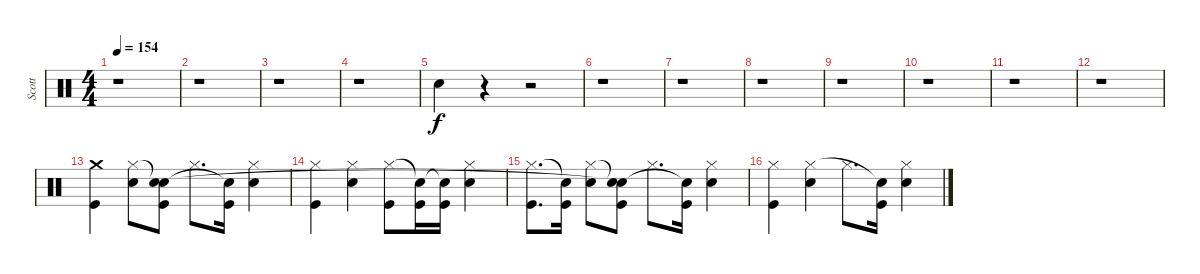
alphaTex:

\track ("Scott" "Scott") {instrument percussion}
\staff {score}
\articulation defaults
\ts (4 4)
\tempo 154
\clef neutral
\ks c
r.1{dy f} |
r.1 |
r.1 |
r.1 |
"Snare (hit) 2".4 r.4 r.2 |
r.1 |
r.1 |
r.1 |
r.1 |
r.1 |
r.1 |
r.1 |
("Kick (hit)" "Crash medium (hit)").4 ("Snare (hit) 2" "Hi-Hat (closed)").8 ("Kick (hit)" "Snare (hit)"{t} "Snare (hit)").8 "Hi-Hat (closed)".8{d} ("Kick (hit)" "Snare (hit)"{t}).16 ("Snare (hit) 2" "Hi-Hat (closed)").4 |
("Kick (hit)" "Hi-Hat (closed)").4 ("Snare (hit) 2" "Hi-Hat (closed)").4 ("Kick (hit)" "Hi-Hat (closed)").8 ("Kick (hit)" "Snare (hit)"{t}).16 ("Kick (hit)" "Snare (hit)"{t}).16 ("Snare (hit) 2" "Hi-Hat (closed)").4 |
("Kick (hit)" "Hi-Hat (closed)").8{d} ("Kick (hit)" "Snare (hit)"{t}).16 ("Snare (hit) 2" "Hi-Hat (closed)").8 ("Kick (hit)" "Snare (hit)"{t} "Snare (hit)"{t}).8 "Hi-Hat (closed)".8{d} ("Kick (hit)" "Snare (hit)"{t}).16 ("Snare (hit) 2" "Hi-Hat (closed)").4 |
("Kick (hit)" "Hi-Hat (closed)").4 ("Snare (hit) 2" "Hi-Hat (closed)").4 "Hi-Hat (closed)".8{d} ("Kick (hit)" "Snare (hit)"{t}).16 ("Snare (hit) 2" "Hi-Hat (closed)").4
